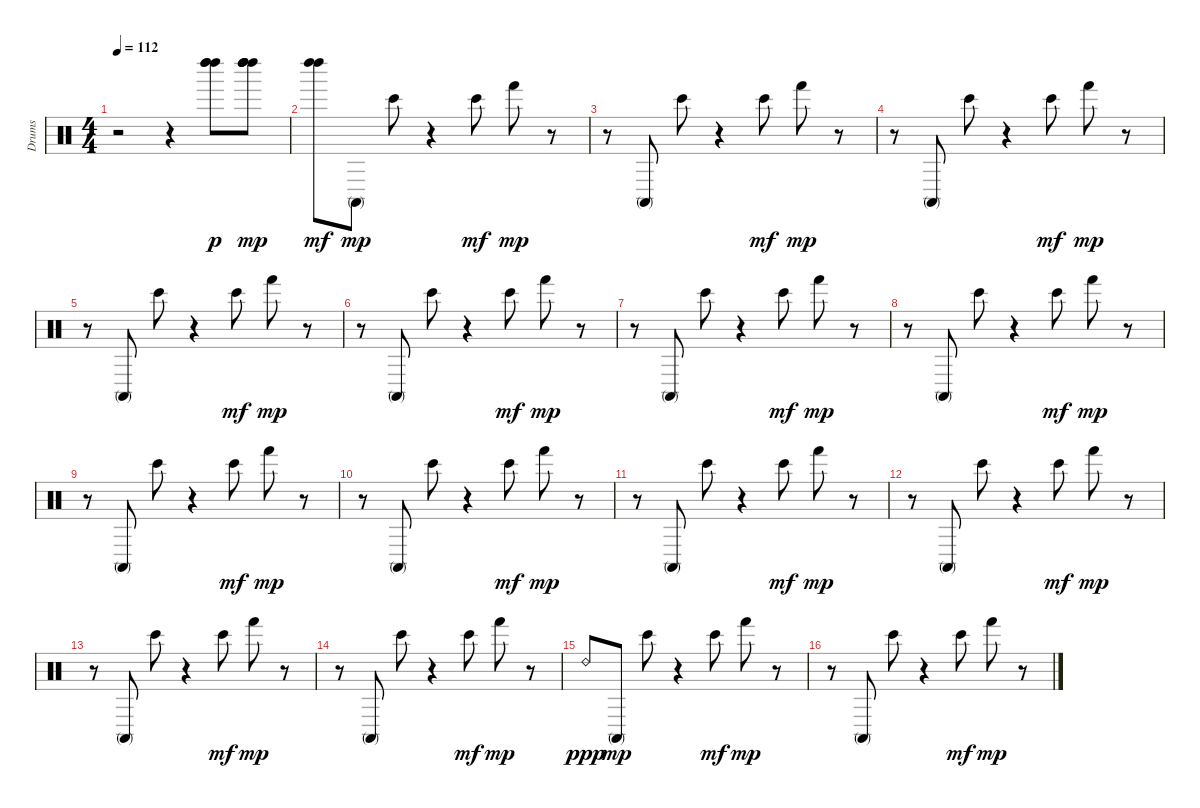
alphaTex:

\track ("Drums" "Drums") {instrument percussion}
\staff {score}
\articulation defaults
\ts (4 4)
\tempo 112
\clef neutral
\ks c
r.2{dy mp} r.4 ("Left Maraca (hit)" "Left Maraca (hit)" "Left Maraca (hit)").8{dy p} ("Left Maraca (hit)" "Left Maraca (hit)" "Left Maraca (hit)" "Left Maraca (hit)").8{dy mp} |
("Left Maraca (hit)" "Left Maraca (hit)").8{dy mf} "Conga high (mute)".8{dy mp} "Bongo High (hit)".8 r.4 "Bongo High (hit)".8{dy mf} "Hand (hit)".8{dy mp} r.8 |
r.8 "Conga high (mute)".8 "Bongo High (hit)".8 r.4 "Bongo High (hit)".8{dy mf} "Hand (hit)".8{dy mp} r.8 |
r.8 "Conga high (mute)".8 "Bongo High (hit)".8 r.4 "Bongo High (hit)".8{dy mf} "Hand (hit)".8{dy mp} r.8 |
r.8 "Conga high (mute)".8 "Bongo High (hit)".8 r.4 "Bongo High (hit)".8{dy mf} "Hand (hit)".8{dy mp} r.8 |
r.8 "Conga high (mute)".8 "Bongo High (hit)".8 r.4 "Bongo High (hit)".8{dy mf} "Hand (hit)".8{dy mp} r.8 |
r.8 "Conga high (mute)".8 "Bongo High (hit)".8 r.4 "Bongo High (hit)".8{dy mf} "Hand (hit)".8{dy mp} r.8 |
r.8 "Conga high (mute)".8 "Bongo High (hit)".8 r.4 "Bongo High (hit)".8{dy mf} "Hand (hit)".8{dy mp} r.8 |
r.8 "Conga high (mute)".8 "Bongo High (hit)".8 r.4 "Bongo High (hit)".8{dy mf} "Hand (hit)".8{dy mp} r.8 |
r.8 "Conga high (mute)".8 "Bongo High (hit)".8 r.4 "Bongo High (hit)".8{dy mf} "Hand (hit)".8{dy mp} r.8 |
r.8 "Conga high (mute)".8 "Bongo High (hit)".8 r.4 "Bongo High (hit)".8{dy mf} "Hand (hit)".8{dy mp} r.8 |
r.8 "Conga high (mute)".8 "Bongo High (hit)".8 r.4 "Bongo High (hit)".8{dy mf} "Hand (hit)".8{dy mp} r.8 |
r.8 "Conga high (mute)".8 "Bongo High (hit)".8 r.4 "Bongo High (hit)".8{dy mf} "Hand (hit)".8{dy mp} r.8 |
r.8 "Conga high (mute)".8 "Bongo High (hit)".8 r.4 "Bongo High (hit)".8{dy mf} "Hand (hit)".8{dy mp} r.8 |
"Ride (bell) 2".8{dy ppp} "Conga high (mute)".8{dy mp} "Bongo High (hit)".8 r.4 "Bongo High (hit)".8{dy mf} "Hand (hit)".8{dy mp} r.8 |
r.8 "Conga high (mute)".8 "Bongo High (hit)".8 r.4 "Bongo High (hit)".8{dy mf} "Hand (hit)".8{dy mp} r.8
